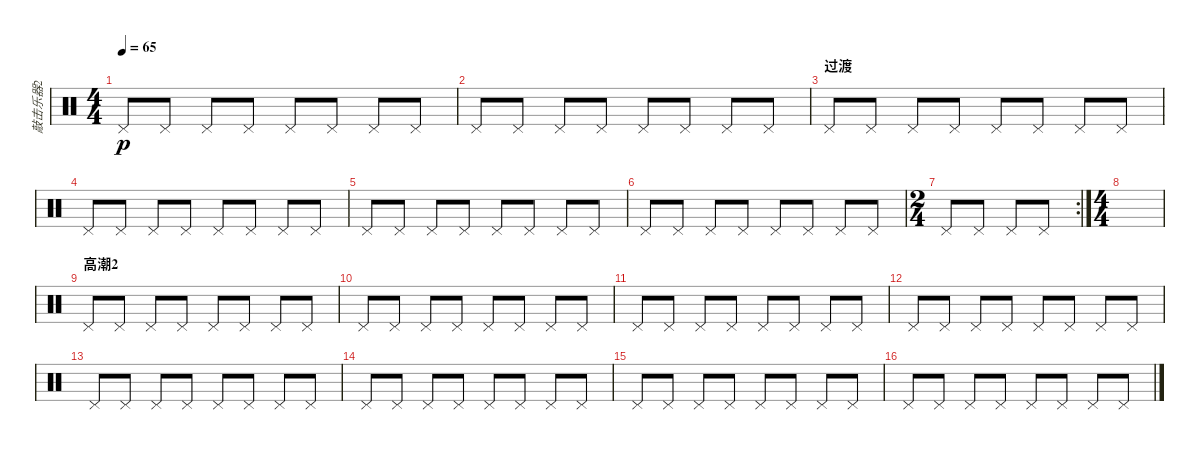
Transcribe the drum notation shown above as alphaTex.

\track ("敲击乐器2" "敲击乐器2") {instrument percussion}
\staff {score}
\articulation defaults
\ts (4 4)
\tempo 65
\clef neutral
\ks c "Pedal Hi-Hat (hit)".8{dy p} "Pedal Hi-Hat (hit)".8 "Pedal Hi-Hat (hit)".8 "Pedal Hi-Hat (hit)".8 "Pedal Hi-Hat (hit)".8 "Pedal Hi-Hat (hit)".8 "Pedal Hi-Hat (hit)".8 "Pedal Hi-Hat (hit)".8
|
"Pedal Hi-Hat (hit)".8 "Pedal Hi-Hat (hit)".8 "Pedal Hi-Hat (hit)".8 "Pedal Hi-Hat (hit)".8 "Pedal Hi-Hat (hit)".8 "Pedal Hi-Hat (hit)".8 "Pedal Hi-Hat (hit)".8 "Pedal Hi-Hat (hit)".8 |
\section ("" "过渡")
"Pedal Hi-Hat (hit)".8 "Pedal Hi-Hat (hit)".8 "Pedal Hi-Hat (hit)".8 "Pedal Hi-Hat (hit)".8 "Pedal Hi-Hat (hit)".8 "Pedal Hi-Hat (hit)".8 "Pedal Hi-Hat (hit)".8 "Pedal Hi-Hat (hit)".8 |
"Pedal Hi-Hat (hit)".8 "Pedal Hi-Hat (hit)".8 "Pedal Hi-Hat (hit)".8 "Pedal Hi-Hat (hit)".8 "Pedal Hi-Hat (hit)".8 "Pedal Hi-Hat (hit)".8 "Pedal Hi-Hat (hit)".8 "Pedal Hi-Hat (hit)".8 |
"Pedal Hi-Hat (hit)".8 "Pedal Hi-Hat (hit)".8 "Pedal Hi-Hat (hit)".8 "Pedal Hi-Hat (hit)".8 "Pedal Hi-Hat (hit)".8 "Pedal Hi-Hat (hit)".8 "Pedal Hi-Hat (hit)".8 "Pedal Hi-Hat (hit)".8 |
"Pedal Hi-Hat (hit)".8 "Pedal Hi-Hat (hit)".8 "Pedal Hi-Hat (hit)".8 "Pedal Hi-Hat (hit)".8 "Pedal Hi-Hat (hit)".8 "Pedal Hi-Hat (hit)".8 "Pedal Hi-Hat (hit)".8 "Pedal Hi-Hat (hit)".8 |
\rc 2
\ts (2 4)
"Pedal Hi-Hat (hit)".8 "Pedal Hi-Hat (hit)".8 "Pedal Hi-Hat (hit)".8 "Pedal Hi-Hat (hit)".8 |
\ts (4 4)
|
\section ("" "高潮2")
"Pedal Hi-Hat (hit)".8 "Pedal Hi-Hat (hit)".8 "Pedal Hi-Hat (hit)".8 "Pedal Hi-Hat (hit)".8 "Pedal Hi-Hat (hit)".8 "Pedal Hi-Hat (hit)".8 "Pedal Hi-Hat (hit)".8 "Pedal Hi-Hat (hit)".8 |
"Pedal Hi-Hat (hit)".8 "Pedal Hi-Hat (hit)".8 "Pedal Hi-Hat (hit)".8 "Pedal Hi-Hat (hit)".8 "Pedal Hi-Hat (hit)".8 "Pedal Hi-Hat (hit)".8 "Pedal Hi-Hat (hit)".8 "Pedal Hi-Hat (hit)".8 |
"Pedal Hi-Hat (hit)".8 "Pedal Hi-Hat (hit)".8 "Pedal Hi-Hat (hit)".8 "Pedal Hi-Hat (hit)".8 "Pedal Hi-Hat (hit)".8 "Pedal Hi-Hat (hit)".8 "Pedal Hi-Hat (hit)".8 "Pedal Hi-Hat (hit)".8 |
"Pedal Hi-Hat (hit)".8 "Pedal Hi-Hat (hit)".8 "Pedal Hi-Hat (hit)".8 "Pedal Hi-Hat (hit)".8 "Pedal Hi-Hat (hit)".8 "Pedal Hi-Hat (hit)".8 "Pedal Hi-Hat (hit)".8 "Pedal Hi-Hat (hit)".8 |
"Pedal Hi-Hat (hit)".8 "Pedal Hi-Hat (hit)".8 "Pedal Hi-Hat (hit)".8 "Pedal Hi-Hat (hit)".8 "Pedal Hi-Hat (hit)".8 "Pedal Hi-Hat (hit)".8 "Pedal Hi-Hat (hit)".8 "Pedal Hi-Hat (hit)".8 |
"Pedal Hi-Hat (hit)".8 "Pedal Hi-Hat (hit)".8 "Pedal Hi-Hat (hit)".8 "Pedal Hi-Hat (hit)".8 "Pedal Hi-Hat (hit)".8 "Pedal Hi-Hat (hit)".8 "Pedal Hi-Hat (hit)".8 "Pedal Hi-Hat (hit)".8 |
"Pedal Hi-Hat (hit)".8 "Pedal Hi-Hat (hit)".8 "Pedal Hi-Hat (hit)".8 "Pedal Hi-Hat (hit)".8 "Pedal Hi-Hat (hit)".8 "Pedal Hi-Hat (hit)".8 "Pedal Hi-Hat (hit)".8 "Pedal Hi-Hat (hit)".8 |
"Pedal Hi-Hat (hit)".8 "Pedal Hi-Hat (hit)".8 "Pedal Hi-Hat (hit)".8 "Pedal Hi-Hat (hit)".8 "Pedal Hi-Hat (hit)".8 "Pedal Hi-Hat (hit)".8 "Pedal Hi-Hat (hit)".8 "Pedal Hi-Hat (hit)".8
